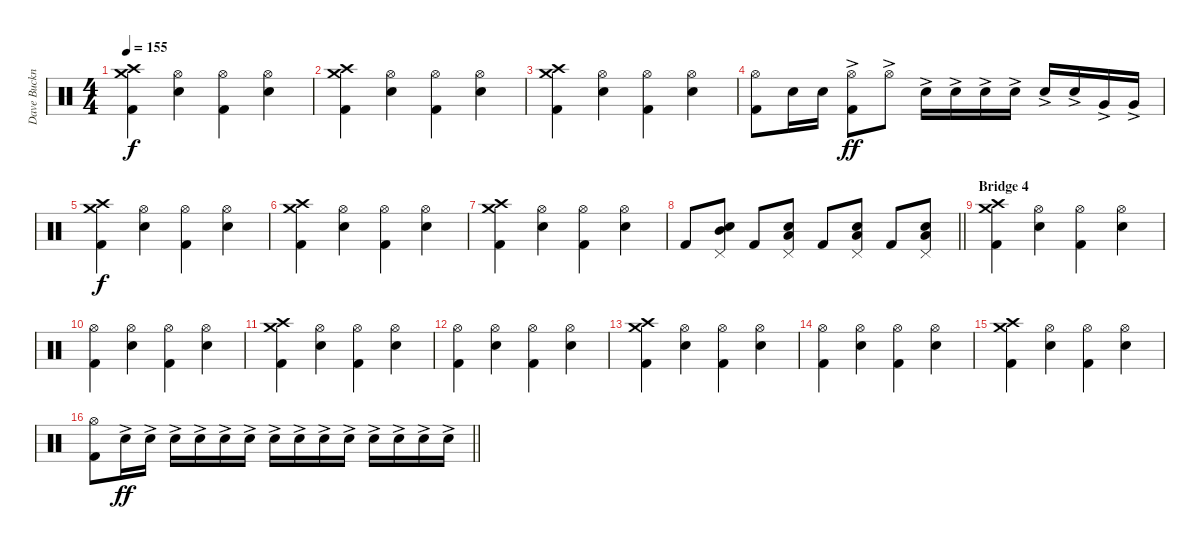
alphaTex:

\track ("Dave Buckner (Drums)" "Dave Buckn") {instrument percussion}
\staff {score}
\articulation defaults
\ts (4 4)
\tempo 155
\clef neutral
\ks c
("Crash medium (hit)" "Crash high (hit)" "Kick (hit) 2").4{dy f} ("Hi-Hat (open)" "Electric Snare (hit)").4 ("Hi-Hat (open)" "Kick (hit) 2").4 ("Hi-Hat (open)" "Electric Snare (hit)").4 |
("Crash medium (hit)" "Crash high (hit)" "Kick (hit) 2").4 ("Hi-Hat (open)" "Electric Snare (hit)").4 ("Hi-Hat (open)" "Kick (hit) 2").4 ("Hi-Hat (open)" "Electric Snare (hit)").4 |
("Crash medium (hit)" "Crash high (hit)" "Kick (hit) 2").4 ("Hi-Hat (open)" "Electric Snare (hit)").4 ("Hi-Hat (open)" "Kick (hit) 2").4 ("Hi-Hat (open)" "Electric Snare (hit)").4 |
("Hi-Hat (open)" "Kick (hit) 2").8 "Electric Snare (hit)".16 "Electric Snare (hit)".16 ("Hi-Hat (open)"{ac} "Kick (hit) 2").8{dy ff} "Hi-Hat (open)"{ac}.8 "Electric Snare (hit)"{ac}.16 "Electric Snare (hit)"{ac}.16 "Electric Snare (hit)"{ac}.16 "Electric Snare (hit)"{ac}.16 "Electric Snare (hit)"{ac}.16 "Electric Snare (hit)"{ac}.16 "Very Low Tom (hit)"{ac}.16 "Very Low Tom (hit)"{ac}.16 |
("Crash medium (hit)" "Crash high (hit)" "Kick (hit) 2").4{dy f} ("Hi-Hat (open)" "Electric Snare (hit)").4 ("Hi-Hat (open)" "Kick (hit) 2").4 ("Hi-Hat (open)" "Electric Snare (hit)").4 |
("Crash medium (hit)" "Crash high (hit)" "Kick (hit) 2").4 ("Hi-Hat (open)" "Electric Snare (hit)").4 ("Hi-Hat (open)" "Kick (hit) 2").4 ("Hi-Hat (open)" "Electric Snare (hit)").4 |
("Crash medium (hit)" "Crash high (hit)" "Kick (hit) 2").4 ("Hi-Hat (open)" "Electric Snare (hit)").4 ("Hi-Hat (open)" "Kick (hit) 2").4 ("Hi-Hat (open)" "Electric Snare (hit)").4 |
\barLineRight lightlight "Kick (hit) 2".8
("Pedal Hi-Hat (hit)" "Electric Snare (hit)" "Mid Tom (hit)").8 "Kick (hit) 2".8 ("Pedal Hi-Hat (hit)" "Electric Snare (hit)" "Low Tom (hit)").8 "Kick (hit) 2".8 ("Pedal Hi-Hat (hit)" "Electric Snare (hit)" "Low Floor Tom (hit)").8 "Kick (hit) 2".8 ("Pedal Hi-Hat (hit)" "Electric Snare (hit)" "Low Floor Tom (hit)").8 |
\section ("" "Bridge 4")
("Crash medium (hit)" "Crash high (hit)" "Kick (hit) 2").4 ("Hi-Hat (open)" "Electric Snare (hit)").4 ("Hi-Hat (open)" "Kick (hit) 2").4 ("Hi-Hat (open)" "Electric Snare (hit)").4 |
("Hi-Hat (open)" "Kick (hit) 2").4 ("Hi-Hat (open)" "Electric Snare (hit)").4 ("Hi-Hat (open)" "Kick (hit) 2").4 ("Hi-Hat (open)" "Electric Snare (hit)").4 |
("Crash medium (hit)" "Crash high (hit)" "Kick (hit) 2").4 ("Hi-Hat (open)" "Electric Snare (hit)").4 ("Hi-Hat (open)" "Kick (hit) 2").4 ("Hi-Hat (open)" "Electric Snare (hit)").4 |
("Hi-Hat (open)" "Kick (hit) 2").4 ("Hi-Hat (open)" "Electric Snare (hit)").4 ("Hi-Hat (open)" "Kick (hit) 2").4 ("Hi-Hat (open)" "Electric Snare (hit)").4 |
("Crash medium (hit)" "Crash high (hit)" "Kick (hit) 2").4 ("Hi-Hat (open)" "Electric Snare (hit)").4 ("Hi-Hat (open)" "Kick (hit) 2").4 ("Hi-Hat (open)" "Electric Snare (hit)").4 |
("Hi-Hat (open)" "Kick (hit) 2").4 ("Hi-Hat (open)" "Electric Snare (hit)").4 ("Hi-Hat (open)" "Kick (hit) 2").4 ("Hi-Hat (open)" "Electric Snare (hit)").4 |
("Crash medium (hit)" "Crash high (hit)" "Kick (hit) 2").4 ("Hi-Hat (open)" "Electric Snare (hit)").4 ("Hi-Hat (open)" "Kick (hit) 2").4 ("Hi-Hat (open)" "Electric Snare (hit)").4 |
\barLineRight lightlight
("Hi-Hat (open)" "Kick (hit) 2").8 "Electric Snare (hit)"{ac}.16{dy ff} "Electric Snare (hit)"{ac}.16 "Electric Snare (hit)"{ac}.16 "Electric Snare (hit)"{ac}.16 "Electric Snare (hit)"{ac}.16 "Electric Snare (hit)"{ac}.16 "Electric Snare (hit)"{ac}.16 "Electric Snare (hit)"{ac}.16 "Electric Snare (hit)"{ac}.16 "Electric Snare (hit)"{ac}.16 "Electric Snare (hit)"{ac}.16 "Electric Snare (hit)"{ac}.16 "Electric Snare (hit)"{ac}.16 "Electric Snare (hit)"{ac}.16
